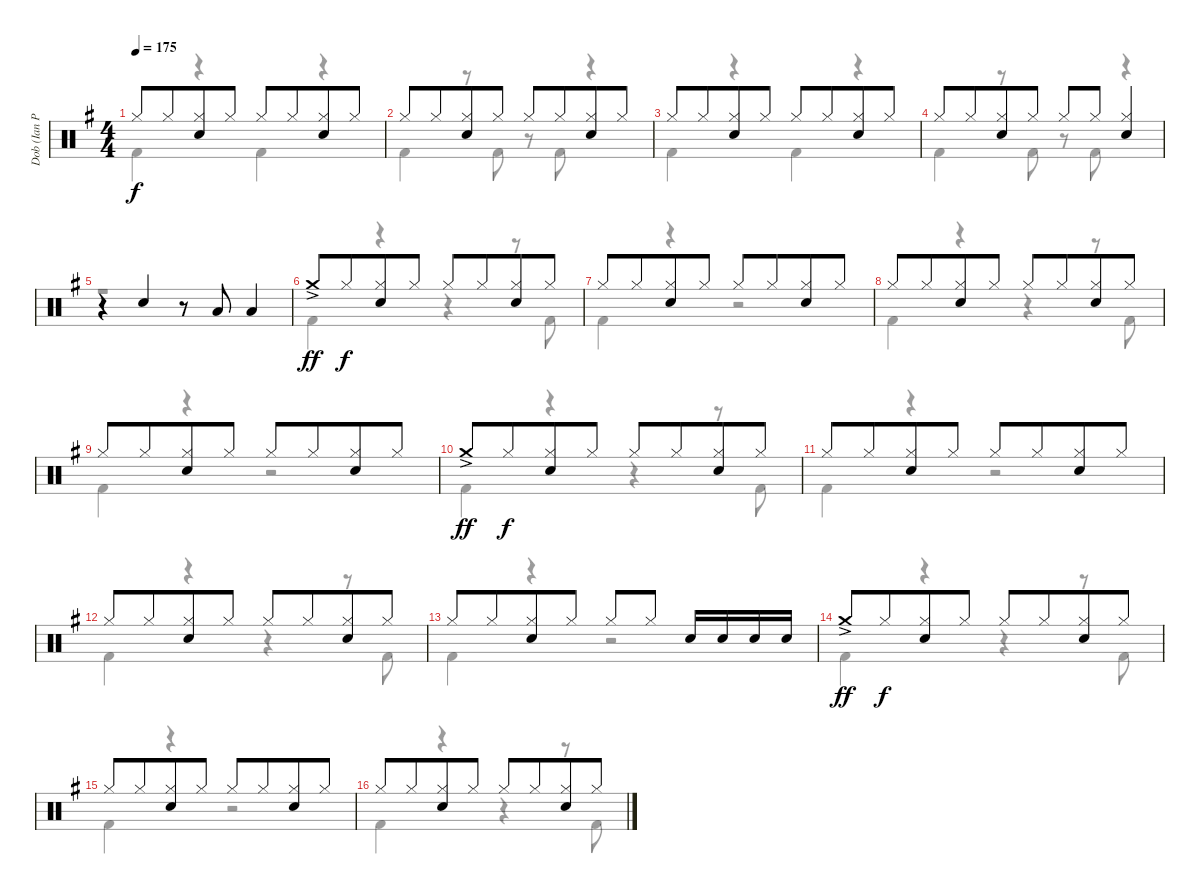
\track ("Dob (Ian Paice)" "Dob (Ian P") {instrument percussion}
\staff {score}
\articulation defaults
\voice
\ts (4 4)
\tempo 175
\clef neutral
\ks g "Hi-Hat (closed)".8{dy f} "Hi-Hat (closed)".8{beam merge}
("Hi-Hat (closed)" "Electric Snare (hit)").8 "Hi-Hat (closed)".8 "Hi-Hat (closed)".8 "Hi-Hat (closed)".8{beam merge} ("Hi-Hat (closed)" "Electric Snare (hit)").8 "Hi-Hat (closed)".8 |
"Hi-Hat (closed)".8 "Hi-Hat (closed)".8{beam merge} ("Hi-Hat (closed)" "Electric Snare (hit)").8 "Hi-Hat (closed)".8 "Hi-Hat (closed)".8 "Hi-Hat (closed)".8{beam merge} ("Hi-Hat (closed)" "Electric Snare (hit)").8 "Hi-Hat (closed)".8 |
"Hi-Hat (closed)".8 "Hi-Hat (closed)".8{beam merge} ("Hi-Hat (closed)" "Electric Snare (hit)").8 "Hi-Hat (closed)".8 "Hi-Hat (closed)".8 "Hi-Hat (closed)".8{beam merge} ("Hi-Hat (closed)" "Electric Snare (hit)").8 "Hi-Hat (closed)".8 |
"Hi-Hat (closed)".8 "Hi-Hat (closed)".8{beam merge} ("Hi-Hat (closed)" "Electric Snare (hit)").8 "Hi-Hat (closed)".8 "Hi-Hat (closed)".8 "Hi-Hat (closed)".8{beam merge} ("Hi-Hat (closed)" "Electric Snare (hit)").4 |
r.4 "Electric Snare (hit)".4 r.8 "Low Tom (hit)".8 "Low Tom (hit)".4 |
"Crash medium (hit)"{ac}.8{dy ff} "Hi-Hat (closed)".8{dy f beam merge} ("Hi-Hat (closed)" "Electric Snare (hit)").8 "Hi-Hat (closed)".8 "Hi-Hat (closed)".8 "Hi-Hat (closed)".8{beam merge} ("Hi-Hat (closed)" "Electric Snare (hit)").8 "Hi-Hat (closed)".8 |
"Hi-Hat (closed)".8 "Hi-Hat (closed)".8{beam merge} ("Hi-Hat (closed)" "Electric Snare (hit)").8 "Hi-Hat (closed)".8 "Hi-Hat (closed)".8 "Hi-Hat (closed)".8{beam merge} ("Hi-Hat (closed)" "Electric Snare (hit)").8 "Hi-Hat (closed)".8 |
"Hi-Hat (closed)".8 "Hi-Hat (closed)".8{beam merge} ("Hi-Hat (closed)" "Electric Snare (hit)").8 "Hi-Hat (closed)".8 "Hi-Hat (closed)".8 "Hi-Hat (closed)".8{beam merge} ("Hi-Hat (closed)" "Electric Snare (hit)").8 "Hi-Hat (closed)".8 |
"Hi-Hat (closed)".8 "Hi-Hat (closed)".8{beam merge} ("Hi-Hat (closed)" "Electric Snare (hit)").8 "Hi-Hat (closed)".8 "Hi-Hat (closed)".8 "Hi-Hat (closed)".8{beam merge} ("Hi-Hat (closed)" "Electric Snare (hit)").8 "Hi-Hat (closed)".8 |
"Crash medium (hit)"{ac}.8{dy ff} "Hi-Hat (closed)".8{dy f beam merge} ("Hi-Hat (closed)" "Electric Snare (hit)").8 "Hi-Hat (closed)".8 "Hi-Hat (closed)".8 "Hi-Hat (closed)".8{beam merge} ("Hi-Hat (closed)" "Electric Snare (hit)").8 "Hi-Hat (closed)".8 |
"Hi-Hat (closed)".8 "Hi-Hat (closed)".8{beam merge} ("Hi-Hat (closed)" "Electric Snare (hit)").8 "Hi-Hat (closed)".8 "Hi-Hat (closed)".8 "Hi-Hat (closed)".8{beam merge} ("Hi-Hat (closed)" "Electric Snare (hit)").8 "Hi-Hat (closed)".8 |
"Hi-Hat (closed)".8 "Hi-Hat (closed)".8{beam merge} ("Hi-Hat (closed)" "Electric Snare (hit)").8 "Hi-Hat (closed)".8 "Hi-Hat (closed)".8 "Hi-Hat (closed)".8{beam merge} ("Hi-Hat (closed)" "Electric Snare (hit)").8 "Hi-Hat (closed)".8 |
"Hi-Hat (closed)".8 "Hi-Hat (closed)".8{beam merge} ("Hi-Hat (closed)" "Electric Snare (hit)").8 "Hi-Hat (closed)".8 "Hi-Hat (closed)".8 "Hi-Hat (closed)".8 "Electric Snare (hit)".16 "Electric Snare (hit)".16 "Electric Snare (hit)".16 "Electric Snare (hit)".16 |
"Crash medium (hit)"{ac}.8{dy ff} "Hi-Hat (closed)".8{dy f beam merge} ("Hi-Hat (closed)" "Electric Snare (hit)").8 "Hi-Hat (closed)".8 "Hi-Hat (closed)".8 "Hi-Hat (closed)".8{beam merge} ("Hi-Hat (closed)" "Electric Snare (hit)").8 "Hi-Hat (closed)".8 |
"Hi-Hat (closed)".8 "Hi-Hat (closed)".8{beam merge} ("Hi-Hat (closed)" "Electric Snare (hit)").8 "Hi-Hat (closed)".8 "Hi-Hat (closed)".8 "Hi-Hat (closed)".8{beam merge} ("Hi-Hat (closed)" "Electric Snare (hit)").8 "Hi-Hat (closed)".8 |
"Hi-Hat (closed)".8 "Hi-Hat (closed)".8{beam merge} ("Hi-Hat (closed)" "Electric Snare (hit)").8 "Hi-Hat (closed)".8 "Hi-Hat (closed)".8 "Hi-Hat (closed)".8{beam merge} ("Hi-Hat (closed)" "Electric Snare (hit)").8 "Hi-Hat (closed)".8
\voice
\clef neutral
\ottava regular
\simile none
\ks g "Kick (hit) 2".4{dy f}
r.4 "Kick (hit) 2".4 r.4 |
"Kick (hit) 2".4 r.8 "Kick (hit) 2".8 r.8 "Kick (hit) 2".8 r.4 |
"Kick (hit) 2".4 r.4 "Kick (hit) 2".4 r.4 |
"Kick (hit) 2".4 r.8 "Kick (hit) 2".8 r.8 "Kick (hit) 2".8 r.4 |
r.1 |
"Kick (hit) 2".4 r.4 r.4 r.8 "Kick (hit) 2".8 |
"Kick (hit) 2".4 r.4 r.2 |
"Kick (hit) 2".4 r.4 r.4 r.8 "Kick (hit) 2".8 |
"Kick (hit) 2".4 r.4 r.2 |
"Kick (hit) 2".4 r.4 r.4 r.8 "Kick (hit) 2".8 |
"Kick (hit) 2".4 r.4 r.2 |
"Kick (hit) 2".4 r.4 r.4 r.8 "Kick (hit) 2".8 |
"Kick (hit) 2".4 r.4 r.2 |
"Kick (hit) 2".4 r.4 r.4 r.8 "Kick (hit) 2".8 |
"Kick (hit) 2".4 r.4 r.2 |
"Kick (hit) 2".4 r.4 r.4 r.8 "Kick (hit) 2".8
